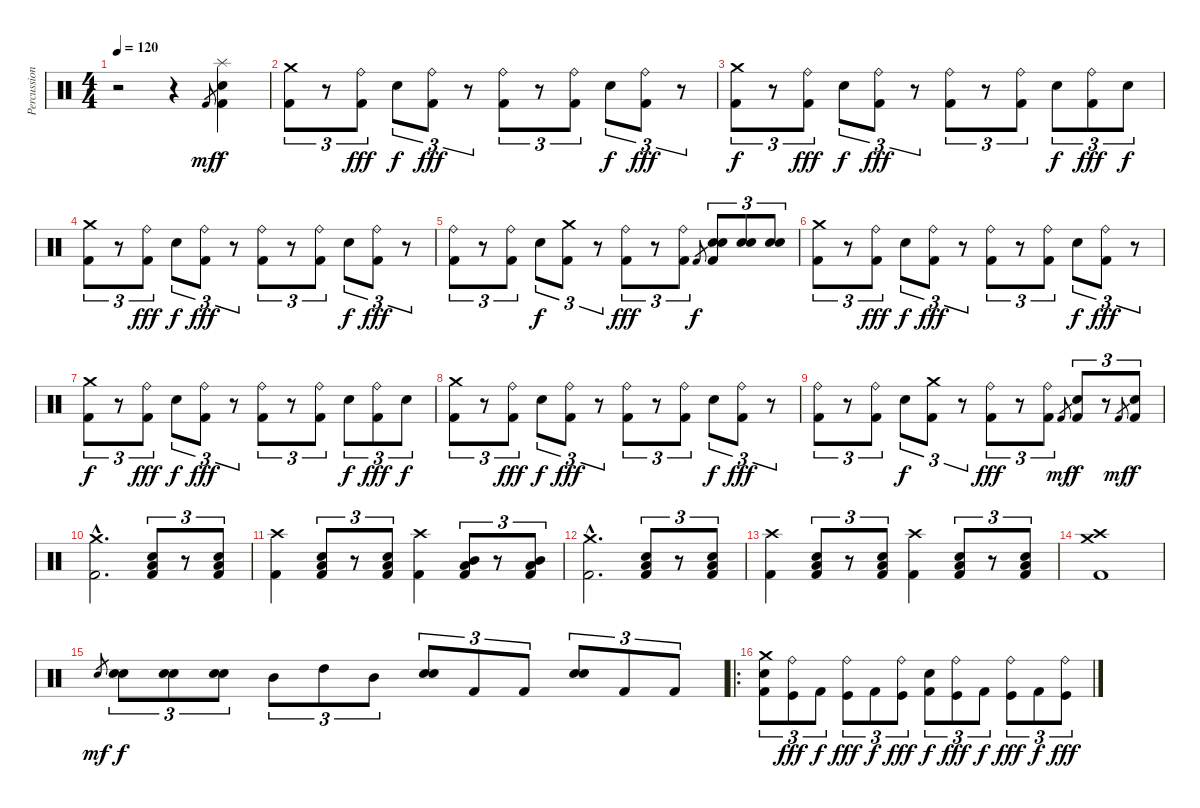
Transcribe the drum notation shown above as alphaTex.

\track ("Percussions" "Percussion") {instrument percussion}
\staff {score}
\articulation defaults
\ts (4 4)
\tempo 120
\clef neutral
\ks c
r.2{dy mf} r.4 "Kick (hit) 2".8{gr} ("Kick (hit) 2" "Electric Snare (hit)" "Splash (hit)").4{dy f} |
("Kick (hit) 2" "Crash medium (hit)").8{tu (3 2)} r.8{tu (3 2)} ("Kick (hit) 2" "Ride (bell)").8{tu (3 2) dy fff} "Electric Snare (hit)".8{tu (3 2) dy f} ("Kick (hit) 2" "Ride (bell)").8{tu (3 2) dy fff} r.8{tu (3 2)} ("Kick (hit) 2" "Ride (bell)").8{tu (3 2)} r.8{tu (3 2)} ("Kick (hit) 2" "Ride (bell)").8{tu (3 2)} "Electric Snare (hit)".8{tu (3 2) dy f} ("Kick (hit) 2" "Ride (bell)").8{tu (3 2) dy fff} r.8{tu (3 2)} |
("Kick (hit) 2" "Crash medium (hit)").8{tu (3 2) dy f} r.8{tu (3 2)} ("Kick (hit) 2" "Ride (bell)").8{tu (3 2) dy fff} "Electric Snare (hit)".8{tu (3 2) dy f} ("Kick (hit) 2" "Ride (bell)").8{tu (3 2) dy fff} r.8{tu (3 2)} ("Kick (hit) 2" "Ride (bell)").8{tu (3 2)} r.8{tu (3 2)} ("Kick (hit) 2" "Ride (bell)").8{tu (3 2)} "Electric Snare (hit)".8{tu (3 2) dy f} ("Kick (hit) 2" "Ride (bell)").8{tu (3 2) dy fff} "Electric Snare (hit)".8{tu (3 2) dy f} |
("Kick (hit) 2" "Crash medium (hit)").8{tu (3 2)} r.8{tu (3 2)} ("Kick (hit) 2" "Ride (bell)").8{tu (3 2) dy fff} "Electric Snare (hit)".8{tu (3 2) dy f} ("Kick (hit) 2" "Ride (bell)").8{tu (3 2) dy fff} r.8{tu (3 2)} ("Kick (hit) 2" "Ride (bell)").8{tu (3 2)} r.8{tu (3 2)} ("Kick (hit) 2" "Ride (bell)").8{tu (3 2)} "Electric Snare (hit)".8{tu (3 2) dy f} ("Kick (hit) 2" "Ride (bell)").8{tu (3 2) dy fff} r.8{tu (3 2)} |
("Kick (hit) 2" "Ride (bell)").8{tu (3 2)} r.8{tu (3 2)} ("Kick (hit) 2" "Ride (bell)").8{tu (3 2)} "Electric Snare (hit)".8{tu (3 2) dy f} ("Kick (hit) 2" "Crash medium (hit)").8{tu (3 2)} r.8{tu (3 2)} ("Kick (hit) 2" "Ride (bell)").8{tu (3 2) dy fff} r.8{tu (3 2)} ("Kick (hit) 2" "Ride (bell)").8{tu (3 2)} "Kick (hit) 2".8{gr dy f} ("Kick (hit) 2" "Snare (hit) 2" "Electric Snare (hit)").8{tu (3 2)} ("Snare (hit) 2" "Electric Snare (hit)").8{tu (3 2)} ("Snare (hit) 2" "Electric Snare (hit)").8{tu (3 2)} |
("Kick (hit) 2" "Crash medium (hit)").8{tu (3 2)} r.8{tu (3 2)} ("Kick (hit) 2" "Ride (bell)").8{tu (3 2) dy fff} "Electric Snare (hit)".8{tu (3 2) dy f} ("Kick (hit) 2" "Ride (bell)").8{tu (3 2) dy fff} r.8{tu (3 2)} ("Kick (hit) 2" "Ride (bell)").8{tu (3 2)} r.8{tu (3 2)} ("Kick (hit) 2" "Ride (bell)").8{tu (3 2)} "Electric Snare (hit)".8{tu (3 2) dy f} ("Kick (hit) 2" "Ride (bell)").8{tu (3 2) dy fff} r.8{tu (3 2)} |
("Kick (hit) 2" "Crash medium (hit)").8{tu (3 2) dy f} r.8{tu (3 2)} ("Kick (hit) 2" "Ride (bell)").8{tu (3 2) dy fff} "Electric Snare (hit)".8{tu (3 2) dy f} ("Kick (hit) 2" "Ride (bell)").8{tu (3 2) dy fff} r.8{tu (3 2)} ("Kick (hit) 2" "Ride (bell)").8{tu (3 2)} r.8{tu (3 2)} ("Kick (hit) 2" "Ride (bell)").8{tu (3 2)} "Electric Snare (hit)".8{tu (3 2) dy f} ("Kick (hit) 2" "Ride (bell)").8{tu (3 2) dy fff} "Electric Snare (hit)".8{tu (3 2) dy f} |
("Kick (hit) 2" "Crash medium (hit)").8{tu (3 2)} r.8{tu (3 2)} ("Kick (hit) 2" "Ride (bell)").8{tu (3 2) dy fff} "Electric Snare (hit)".8{tu (3 2) dy f} ("Kick (hit) 2" "Ride (bell)").8{tu (3 2) dy fff} r.8{tu (3 2)} ("Kick (hit) 2" "Ride (bell)").8{tu (3 2)} r.8{tu (3 2)} ("Kick (hit) 2" "Ride (bell)").8{tu (3 2)} "Electric Snare (hit)".8{tu (3 2) dy f} ("Kick (hit) 2" "Ride (bell)").8{tu (3 2) dy fff} r.8{tu (3 2)} |
("Kick (hit) 2" "Ride (bell)").8{tu (3 2)} r.8{tu (3 2)} ("Kick (hit) 2" "Ride (bell)").8{tu (3 2)} "Electric Snare (hit)".8{tu (3 2) dy f} ("Kick (hit) 2" "Crash medium (hit)").8{tu (3 2)} r.8{tu (3 2)} ("Kick (hit) 2" "Ride (bell)").8{tu (3 2) dy fff} r.8{tu (3 2)} ("Kick (hit) 2" "Ride (bell)").8{tu (3 2)} "Kick (hit) 2".8{gr dy mf} ("Kick (hit) 2" "Electric Snare (hit)").8{tu (3 2) dy f} r.8{tu (3 2)} "Kick (hit) 2".8{gr dy mf} ("Kick (hit) 2" "Electric Snare (hit)").8{tu (3 2) dy f} |
("Kick (hit) 2"{hac} "Crash medium (hit)"{hac}).2{d} ("Kick (hit) 2" "Electric Snare (hit)" "Low Tom (hit)").8{tu (3 2)} r.8{tu (3 2)} ("Kick (hit) 2" "Electric Snare (hit)" "Low Tom (hit)").8{tu (3 2)} |
("Kick (hit) 2" "Crash high (hit)").4 ("Kick (hit) 2" "Electric Snare (hit)" "Low Tom (hit)").8{tu (3 2)} r.8{tu (3 2)} ("Kick (hit) 2" "Electric Snare (hit)" "Low Tom (hit)").8{tu (3 2)} ("Kick (hit) 2" "Crash high (hit)").4 ("Kick (hit) 2" "Mid Tom (hit)" "Low Tom (hit)").8{tu (3 2)} r.8{tu (3 2)} ("Kick (hit) 2" "Mid Tom (hit)" "Low Tom (hit)").8{tu (3 2)} |
("Kick (hit) 2"{hac} "Crash medium (hit)"{hac}).2{d} ("Kick (hit) 2" "Electric Snare (hit)" "Low Tom (hit)").8{tu (3 2)} r.8{tu (3 2)} ("Kick (hit) 2" "Electric Snare (hit)" "Low Tom (hit)").8{tu (3 2)} |
("Kick (hit) 2" "Crash high (hit)").4 ("Kick (hit) 2" "Electric Snare (hit)" "Low Tom (hit)").8{tu (3 2)} r.8{tu (3 2)} ("Kick (hit) 2" "Electric Snare (hit)" "Low Tom (hit)").8{tu (3 2)} ("Kick (hit) 2" "Crash high (hit)").4 ("Kick (hit) 2" "Electric Snare (hit)" "Low Tom (hit)").8{tu (3 2)} r.8{tu (3 2)} ("Kick (hit) 2" "Electric Snare (hit)" "Low Tom (hit)").8{tu (3 2)} |
("Kick (hit) 2" "Crash high (hit)" "Crash medium (hit)").1 |
"Electric Snare (hit)".8{gr dy mf} ("Snare (hit) 2" "Electric Snare (hit)").8{tu (3 2) dy f} ("Snare (hit) 2" "Electric Snare (hit)").8{tu (3 2)} ("Snare (hit) 2" "Electric Snare (hit)").8{tu (3 2)} "Mid Tom (hit)".8{tu (3 2)} "High Tom (hit)".8{tu (3 2)} "Mid Tom (hit)".8{tu (3 2)} ("Snare (hit) 2" "Electric Snare (hit)").8{tu (3 2)} "Kick (hit) 2".8{tu (3 2)} "Kick (hit) 2".8{tu (3 2)} ("Snare (hit) 2" "Electric Snare (hit)").8{tu (3 2)} "Kick (hit) 2".8{tu (3 2)} "Kick (hit) 2".8{tu (3 2)} |
\ro
("Kick (hit) 2" "Electric Snare (hit)" "Crash medium (hit)").8{tu (3 2)} ("Kick (hit)" "Ride (bell)").8{tu (3 2) dy fff} "Kick (hit) 2".8{tu (3 2) dy f} ("Kick (hit)" "Ride (bell)").8{tu (3 2) dy fff} "Kick (hit) 2".8{tu (3 2) dy f} ("Kick (hit)" "Ride (bell)").8{tu (3 2) dy fff} ("Kick (hit) 2" "Electric Snare (hit)").8{tu (3 2) dy f} ("Kick (hit)" "Ride (bell)").8{tu (3 2) dy fff} "Kick (hit) 2".8{tu (3 2) dy f} ("Kick (hit)" "Ride (bell)").8{tu (3 2) dy fff} "Kick (hit) 2".8{tu (3 2) dy f} ("Kick (hit)" "Ride (bell)").8{tu (3 2) dy fff}
